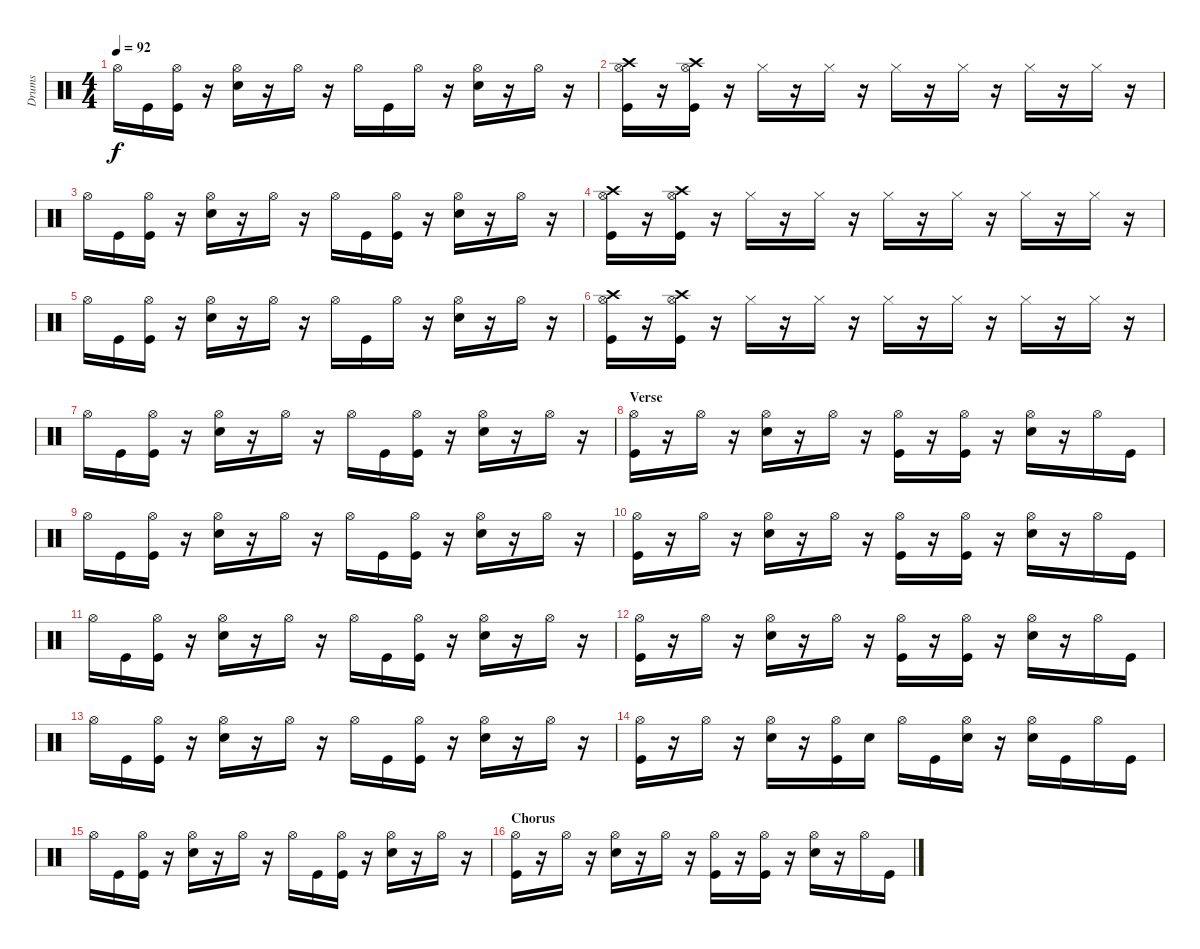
\track ("Drums" "Drums") {instrument percussion}
\staff {score}
\articulation defaults
\ts (4 4)
\tempo 92
\clef neutral
\ks c "Hi-Hat (open)".16{dy f} "Kick (hit)".16
("Hi-Hat (open)" "Kick (hit)").16 r.16 ("Hi-Hat (open)" "Snare (hit) 2").16 r.16 "Hi-Hat (open)".16 r.16 "Hi-Hat (open)".16 "Kick (hit)".16 "Hi-Hat (open)".16 r.16 ("Hi-Hat (open)" "Snare (hit) 2").16 r.16 "Hi-Hat (open)".16 r.16 |
("Hi-Hat (open)" "Crash high (hit)" "Kick (hit)").16 r.16 ("Hi-Hat (open)" "Crash high (hit)" "Kick (hit)").16 r.16 "Hi-Hat (closed)".16 r.16 "Hi-Hat (closed)".16 r.16 "Hi-Hat (closed)".16 r.16 "Hi-Hat (closed)".16 r.16 "Hi-Hat (closed)".16 r.16 "Hi-Hat (closed)".16 r.16 |
"Hi-Hat (open)".16 "Kick (hit)".16 ("Hi-Hat (open)" "Kick (hit)").16 r.16 ("Hi-Hat (open)" "Snare (hit) 2").16 r.16 "Hi-Hat (open)".16 r.16 "Hi-Hat (open)".16 "Kick (hit)".16 ("Hi-Hat (open)" "Kick (hit)").16 r.16 ("Hi-Hat (open)" "Snare (hit) 2").16 r.16 "Hi-Hat (open)".16 r.16 |
("Hi-Hat (open)" "Crash high (hit)" "Kick (hit)").16 r.16 ("Hi-Hat (open)" "Crash high (hit)" "Kick (hit)").16 r.16 "Hi-Hat (closed)".16 r.16 "Hi-Hat (closed)".16 r.16 "Hi-Hat (closed)".16 r.16 "Hi-Hat (closed)".16 r.16 "Hi-Hat (closed)".16 r.16 "Hi-Hat (closed)".16 r.16 |
"Hi-Hat (open)".16 "Kick (hit)".16 ("Hi-Hat (open)" "Kick (hit)").16 r.16 ("Hi-Hat (open)" "Snare (hit) 2").16 r.16 "Hi-Hat (open)".16 r.16 "Hi-Hat (open)".16 "Kick (hit)".16 "Hi-Hat (open)".16 r.16 ("Hi-Hat (open)" "Snare (hit) 2").16 r.16 "Hi-Hat (open)".16 r.16 |
("Hi-Hat (open)" "Crash high (hit)" "Kick (hit)").16 r.16 ("Hi-Hat (open)" "Crash high (hit)" "Kick (hit)").16 r.16 "Hi-Hat (closed)".16 r.16 "Hi-Hat (closed)".16 r.16 "Hi-Hat (closed)".16 r.16 "Hi-Hat (closed)".16 r.16 "Hi-Hat (closed)".16 r.16 "Hi-Hat (closed)".16 r.16 |
"Hi-Hat (open)".16 "Kick (hit)".16 ("Hi-Hat (open)" "Kick (hit)").16 r.16 ("Hi-Hat (open)" "Snare (hit) 2").16 r.16 "Hi-Hat (open)".16 r.16 "Hi-Hat (open)".16 "Kick (hit)".16 ("Hi-Hat (open)" "Kick (hit)").16 r.16 ("Hi-Hat (open)" "Snare (hit) 2").16 r.16 "Hi-Hat (open)".16 r.16 |
\section ("" "Verse")
("Hi-Hat (open)" "Kick (hit)").16 r.16 "Hi-Hat (open)".16 r.16 ("Hi-Hat (open)" "Snare (hit) 2").16 r.16 "Hi-Hat (open)".16 r.16 ("Hi-Hat (open)" "Kick (hit)").16 r.16 ("Hi-Hat (open)" "Kick (hit)").16 r.16 ("Hi-Hat (open)" "Snare (hit) 2").16 r.16 "Hi-Hat (open)".16 "Kick (hit)".16 |
"Hi-Hat (open)".16 "Kick (hit)".16 ("Hi-Hat (open)" "Kick (hit)").16 r.16 ("Hi-Hat (open)" "Snare (hit) 2").16 r.16 "Hi-Hat (open)".16 r.16 "Hi-Hat (open)".16 "Kick (hit)".16 ("Hi-Hat (open)" "Kick (hit)").16 r.16 ("Hi-Hat (open)" "Snare (hit) 2").16 r.16 "Hi-Hat (open)".16 r.16 |
("Hi-Hat (open)" "Kick (hit)").16 r.16 "Hi-Hat (open)".16 r.16 ("Hi-Hat (open)" "Snare (hit) 2").16 r.16 "Hi-Hat (open)".16 r.16 ("Hi-Hat (open)" "Kick (hit)").16 r.16 ("Hi-Hat (open)" "Kick (hit)").16 r.16 ("Hi-Hat (open)" "Snare (hit) 2").16 r.16 "Hi-Hat (open)".16 "Kick (hit)".16 |
"Hi-Hat (open)".16 "Kick (hit)".16 ("Hi-Hat (open)" "Kick (hit)").16 r.16 ("Hi-Hat (open)" "Snare (hit) 2").16 r.16 "Hi-Hat (open)".16 r.16 "Hi-Hat (open)".16 "Kick (hit)".16 ("Hi-Hat (open)" "Kick (hit)").16 r.16 ("Hi-Hat (open)" "Snare (hit) 2").16 r.16 "Hi-Hat (open)".16 r.16 |
("Hi-Hat (open)" "Kick (hit)").16 r.16 "Hi-Hat (open)".16 r.16 ("Hi-Hat (open)" "Snare (hit) 2").16 r.16 "Hi-Hat (open)".16 r.16 ("Hi-Hat (open)" "Kick (hit)").16 r.16 ("Hi-Hat (open)" "Kick (hit)").16 r.16 ("Hi-Hat (open)" "Snare (hit) 2").16 r.16 "Hi-Hat (open)".16 "Kick (hit)".16 |
"Hi-Hat (open)".16 "Kick (hit)".16 ("Hi-Hat (open)" "Kick (hit)").16 r.16 ("Hi-Hat (open)" "Snare (hit) 2").16 r.16 "Hi-Hat (open)".16 r.16 "Hi-Hat (open)".16 "Kick (hit)".16 ("Hi-Hat (open)" "Kick (hit)").16 r.16 ("Hi-Hat (open)" "Snare (hit) 2").16 r.16 "Hi-Hat (open)".16 r.16 |
("Hi-Hat (open)" "Kick (hit)").16 r.16 "Hi-Hat (open)".16 r.16 ("Hi-Hat (open)" "Snare (hit) 2").16 r.16 ("Hi-Hat (open)" "Kick (hit)").16 "Snare (hit) 2".16 "Hi-Hat (open)".16 "Kick (hit)".16 ("Hi-Hat (open)" "Snare (hit) 2").16 r.16 ("Hi-Hat (open)" "Snare (hit) 2").16 "Kick (hit)".16 "Hi-Hat (open)".16 "Kick (hit)".16 |
"Hi-Hat (open)".16 "Kick (hit)".16 ("Hi-Hat (open)" "Kick (hit)").16 r.16 ("Hi-Hat (open)" "Snare (hit) 2").16 r.16 "Hi-Hat (open)".16 r.16 "Hi-Hat (open)".16 "Kick (hit)".16 ("Hi-Hat (open)" "Kick (hit)").16 r.16 ("Hi-Hat (open)" "Snare (hit) 2").16 r.16 "Hi-Hat (open)".16 r.16 |
\section ("" "Chorus")
("Hi-Hat (open)" "Kick (hit)").16 r.16 "Hi-Hat (open)".16 r.16 ("Hi-Hat (open)" "Snare (hit) 2").16 r.16 "Hi-Hat (open)".16 r.16 ("Hi-Hat (open)" "Kick (hit)").16 r.16 ("Hi-Hat (open)" "Kick (hit)").16 r.16 ("Hi-Hat (open)" "Snare (hit) 2").16 r.16 "Hi-Hat (open)".16 "Kick (hit)".16
